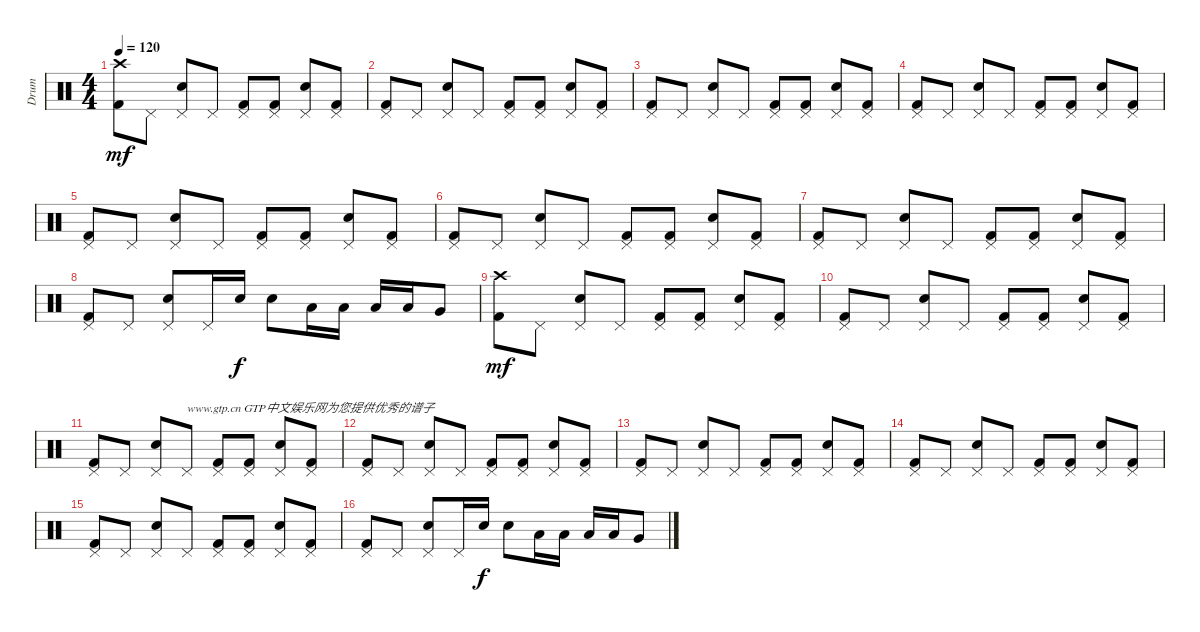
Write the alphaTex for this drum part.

\track ("Drum" "Drum") {instrument percussion}
\staff {score}
\articulation defaults
\ts (4 4)
\tempo 120
\clef neutral
\ks c
("Crash high (hit)" "Kick (hit) 2").8{dy mf} "Pedal Hi-Hat (hit)".8 ("Pedal Hi-Hat (hit)" "Electric Snare (hit)").8 "Pedal Hi-Hat (hit)".8 ("Pedal Hi-Hat (hit)" "Kick (hit) 2").8 ("Pedal Hi-Hat (hit)" "Kick (hit) 2").8 ("Pedal Hi-Hat (hit)" "Electric Snare (hit)").8 ("Pedal Hi-Hat (hit)" "Kick (hit) 2").8 |
("Pedal Hi-Hat (hit)" "Kick (hit) 2").8 "Pedal Hi-Hat (hit)".8 ("Pedal Hi-Hat (hit)" "Electric Snare (hit)").8 "Pedal Hi-Hat (hit)".8 ("Pedal Hi-Hat (hit)" "Kick (hit) 2").8 ("Pedal Hi-Hat (hit)" "Kick (hit) 2").8 ("Pedal Hi-Hat (hit)" "Electric Snare (hit)").8 ("Pedal Hi-Hat (hit)" "Kick (hit) 2").8 |
("Pedal Hi-Hat (hit)" "Kick (hit) 2").8 "Pedal Hi-Hat (hit)".8 ("Pedal Hi-Hat (hit)" "Electric Snare (hit)").8 "Pedal Hi-Hat (hit)".8 ("Pedal Hi-Hat (hit)" "Kick (hit) 2").8 ("Pedal Hi-Hat (hit)" "Kick (hit) 2").8 ("Pedal Hi-Hat (hit)" "Electric Snare (hit)").8 ("Pedal Hi-Hat (hit)" "Kick (hit) 2").8 |
("Pedal Hi-Hat (hit)" "Kick (hit) 2").8 "Pedal Hi-Hat (hit)".8 ("Pedal Hi-Hat (hit)" "Electric Snare (hit)").8 "Pedal Hi-Hat (hit)".8 ("Pedal Hi-Hat (hit)" "Kick (hit) 2").8 ("Pedal Hi-Hat (hit)" "Kick (hit) 2").8 ("Pedal Hi-Hat (hit)" "Electric Snare (hit)").8 ("Pedal Hi-Hat (hit)" "Kick (hit) 2").8 |
("Pedal Hi-Hat (hit)" "Kick (hit) 2").8 "Pedal Hi-Hat (hit)".8 ("Pedal Hi-Hat (hit)" "Electric Snare (hit)").8 "Pedal Hi-Hat (hit)".8 ("Pedal Hi-Hat (hit)" "Kick (hit) 2").8 ("Pedal Hi-Hat (hit)" "Kick (hit) 2").8 ("Pedal Hi-Hat (hit)" "Electric Snare (hit)").8 ("Pedal Hi-Hat (hit)" "Kick (hit) 2").8 |
("Pedal Hi-Hat (hit)" "Kick (hit) 2").8 "Pedal Hi-Hat (hit)".8 ("Pedal Hi-Hat (hit)" "Electric Snare (hit)").8 "Pedal Hi-Hat (hit)".8 ("Pedal Hi-Hat (hit)" "Kick (hit) 2").8 ("Pedal Hi-Hat (hit)" "Kick (hit) 2").8 ("Pedal Hi-Hat (hit)" "Electric Snare (hit)").8 ("Pedal Hi-Hat (hit)" "Kick (hit) 2").8 |
("Pedal Hi-Hat (hit)" "Kick (hit) 2").8 "Pedal Hi-Hat (hit)".8 ("Pedal Hi-Hat (hit)" "Electric Snare (hit)").8 "Pedal Hi-Hat (hit)".8 ("Pedal Hi-Hat (hit)" "Kick (hit) 2").8 ("Pedal Hi-Hat (hit)" "Kick (hit) 2").8 ("Pedal Hi-Hat (hit)" "Electric Snare (hit)").8 ("Pedal Hi-Hat (hit)" "Kick (hit) 2").8 |
("Pedal Hi-Hat (hit)" "Kick (hit) 2").8 "Pedal Hi-Hat (hit)".8 ("Pedal Hi-Hat (hit)" "Electric Snare (hit)").8 "Pedal Hi-Hat (hit)".16 "Electric Snare (hit)".16{dy f} "Electric Snare (hit)".8 "Low Tom (hit)".16 "Low Tom (hit)".16 "Low Tom (hit)".16 "Low Tom (hit)".16 "Very Low Tom (hit)".8 |
("Crash high (hit)" "Kick (hit) 2").8{dy mf} "Pedal Hi-Hat (hit)".8 ("Pedal Hi-Hat (hit)" "Electric Snare (hit)").8 "Pedal Hi-Hat (hit)".8 ("Pedal Hi-Hat (hit)" "Kick (hit) 2").8 ("Pedal Hi-Hat (hit)" "Kick (hit) 2").8 ("Pedal Hi-Hat (hit)" "Electric Snare (hit)").8 ("Pedal Hi-Hat (hit)" "Kick (hit) 2").8 |
("Pedal Hi-Hat (hit)" "Kick (hit) 2").8 "Pedal Hi-Hat (hit)".8 ("Pedal Hi-Hat (hit)" "Electric Snare (hit)").8 "Pedal Hi-Hat (hit)".8 ("Pedal Hi-Hat (hit)" "Kick (hit) 2").8 ("Pedal Hi-Hat (hit)" "Kick (hit) 2").8 ("Pedal Hi-Hat (hit)" "Electric Snare (hit)").8 ("Pedal Hi-Hat (hit)" "Kick (hit) 2").8 |
("Pedal Hi-Hat (hit)" "Kick (hit) 2").8 "Pedal Hi-Hat (hit)".8 ("Pedal Hi-Hat (hit)" "Electric Snare (hit)").8 "Pedal Hi-Hat (hit)".8{txt "www.gtp.cn GTP中文娱乐网为您提供优秀的谱子"} ("Pedal Hi-Hat (hit)" "Kick (hit) 2").8 ("Pedal Hi-Hat (hit)" "Kick (hit) 2").8 ("Pedal Hi-Hat (hit)" "Electric Snare (hit)").8 ("Pedal Hi-Hat (hit)" "Kick (hit) 2").8 |
("Pedal Hi-Hat (hit)" "Kick (hit) 2").8 "Pedal Hi-Hat (hit)".8 ("Pedal Hi-Hat (hit)" "Electric Snare (hit)").8 "Pedal Hi-Hat (hit)".8 ("Pedal Hi-Hat (hit)" "Kick (hit) 2").8 ("Pedal Hi-Hat (hit)" "Kick (hit) 2").8 ("Pedal Hi-Hat (hit)" "Electric Snare (hit)").8 ("Pedal Hi-Hat (hit)" "Kick (hit) 2").8 |
("Pedal Hi-Hat (hit)" "Kick (hit) 2").8 "Pedal Hi-Hat (hit)".8 ("Pedal Hi-Hat (hit)" "Electric Snare (hit)").8 "Pedal Hi-Hat (hit)".8 ("Pedal Hi-Hat (hit)" "Kick (hit) 2").8 ("Pedal Hi-Hat (hit)" "Kick (hit) 2").8 ("Pedal Hi-Hat (hit)" "Electric Snare (hit)").8 ("Pedal Hi-Hat (hit)" "Kick (hit) 2").8 |
("Pedal Hi-Hat (hit)" "Kick (hit) 2").8 "Pedal Hi-Hat (hit)".8 ("Pedal Hi-Hat (hit)" "Electric Snare (hit)").8 "Pedal Hi-Hat (hit)".8 ("Pedal Hi-Hat (hit)" "Kick (hit) 2").8 ("Pedal Hi-Hat (hit)" "Kick (hit) 2").8 ("Pedal Hi-Hat (hit)" "Electric Snare (hit)").8 ("Pedal Hi-Hat (hit)" "Kick (hit) 2").8 |
("Pedal Hi-Hat (hit)" "Kick (hit) 2").8 "Pedal Hi-Hat (hit)".8 ("Pedal Hi-Hat (hit)" "Electric Snare (hit)").8 "Pedal Hi-Hat (hit)".8 ("Pedal Hi-Hat (hit)" "Kick (hit) 2").8 ("Pedal Hi-Hat (hit)" "Kick (hit) 2").8 ("Pedal Hi-Hat (hit)" "Electric Snare (hit)").8 ("Pedal Hi-Hat (hit)" "Kick (hit) 2").8 |
("Pedal Hi-Hat (hit)" "Kick (hit) 2").8 "Pedal Hi-Hat (hit)".8 ("Pedal Hi-Hat (hit)" "Electric Snare (hit)").8 "Pedal Hi-Hat (hit)".16 "Electric Snare (hit)".16{dy f} "Electric Snare (hit)".8 "Low Tom (hit)".16 "Low Tom (hit)".16 "Low Tom (hit)".16 "Low Tom (hit)".16 "Very Low Tom (hit)".8
